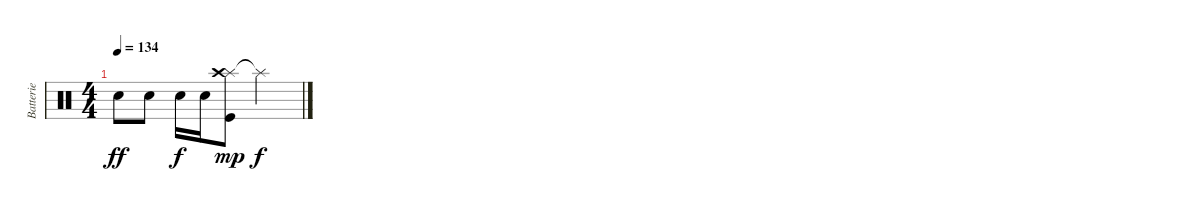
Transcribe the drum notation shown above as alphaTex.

\track ("Batterie" "Batterie") {instrument percussion}
\staff {score}
\articulation defaults
\ts (4 4)
\tempo 134
\clef neutral
\ks c "Snare (hit) 2".8{dy ff} "Snare (hit) 2".8 "Snare (hit) 2".16{dy f} "Snare (hit) 2".16
("Splash (hit)" "Crash high (hit)" "Kick (hit)").8{dy mp} "Splash (hit)"{t}.2{dy f}
